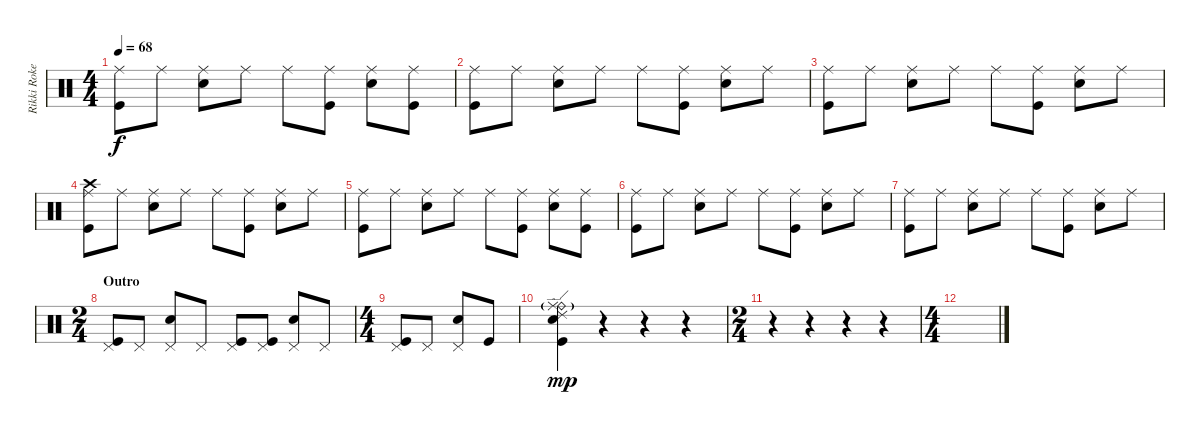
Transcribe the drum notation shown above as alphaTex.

\track ("Rikki Rokett" "Rikki Roke") {instrument percussion}
\staff {score}
\articulation defaults
\ts (4 4)
\tempo 68
\clef neutral
\ks c
("Ride (middle)" "Kick (hit)").8{dy f} "Ride (middle)".8 ("Ride (middle)" "Snare (hit) 2").8 "Ride (middle)".8 "Ride (middle)".8 ("Ride (middle)" "Kick (hit)").8 ("Ride (middle)" "Snare (hit) 2").8 ("Ride (middle)" "Kick (hit)").8 |
("Ride (middle)" "Kick (hit)").8 "Ride (middle)".8 ("Ride (middle)" "Snare (hit) 2").8 "Ride (middle)".8 "Ride (middle)".8 ("Ride (middle)" "Kick (hit)").8 ("Ride (middle)" "Snare (hit) 2").8 "Ride (middle)".8 |
("Ride (middle)" "Kick (hit)").8 "Ride (middle)".8 ("Ride (middle)" "Snare (hit) 2").8 "Ride (middle)".8 "Ride (middle)".8 ("Ride (middle)" "Kick (hit)").8 ("Ride (middle)" "Snare (hit) 2").8 "Ride (middle)".8 |
("Ride (middle)" "Crash high (hit)" "Kick (hit)").8 "Ride (middle)".8 ("Ride (middle)" "Snare (hit) 2").8 "Ride (middle)".8 "Ride (middle)".8 ("Ride (middle)" "Kick (hit)").8 ("Ride (middle)" "Snare (hit) 2").8 "Ride (middle)".8 |
("Ride (middle)" "Kick (hit)").8 "Ride (middle)".8 ("Ride (middle)" "Snare (hit) 2").8 "Ride (middle)".8 "Ride (middle)".8 ("Ride (middle)" "Kick (hit)").8 ("Ride (middle)" "Snare (hit) 2").8 ("Ride (middle)" "Kick (hit)").8 |
("Ride (middle)" "Kick (hit)").8 "Ride (middle)".8 ("Ride (middle)" "Snare (hit) 2").8 "Ride (middle)".8 "Ride (middle)".8 ("Ride (middle)" "Kick (hit)").8 ("Ride (middle)" "Snare (hit) 2").8 "Ride (middle)".8 |
("Ride (middle)" "Kick (hit)").8 "Ride (middle)".8 ("Ride (middle)" "Snare (hit) 2").8 "Ride (middle)".8 "Ride (middle)".8 ("Ride (middle)" "Kick (hit)").8 ("Ride (middle)" "Snare (hit) 2").8 "Ride (middle)".8 |
\ts (2 4)
\section ("" "Outro")
("Pedal Hi-Hat (hit)" "Kick (hit)").8 "Pedal Hi-Hat (hit)".8 ("Pedal Hi-Hat (hit)" "Snare (hit) 2").8 "Pedal Hi-Hat (hit)".8 ("Pedal Hi-Hat (hit)" "Kick (hit)").8 ("Pedal Hi-Hat (hit)" "Kick (hit)").8 ("Pedal Hi-Hat (hit)" "Snare (hit) 2").8 "Pedal Hi-Hat (hit)".8 |
\ts (4 4)
("Pedal Hi-Hat (hit)" "Kick (hit)").8 "Pedal Hi-Hat (hit)".8 ("Pedal Hi-Hat (hit)" "Snare (hit) 2").8 "Kick (hit)".8 |
("Ride (bell)"{g} "Ride (edge) 2" "Ride (middle)" "Snare (hit) 2" "Kick (hit)").4{dy mp} r.4 r.4 r.4 |
\ts (2 4)
r.4 r.4 r.4 r.4 |
\ts (4 4)
